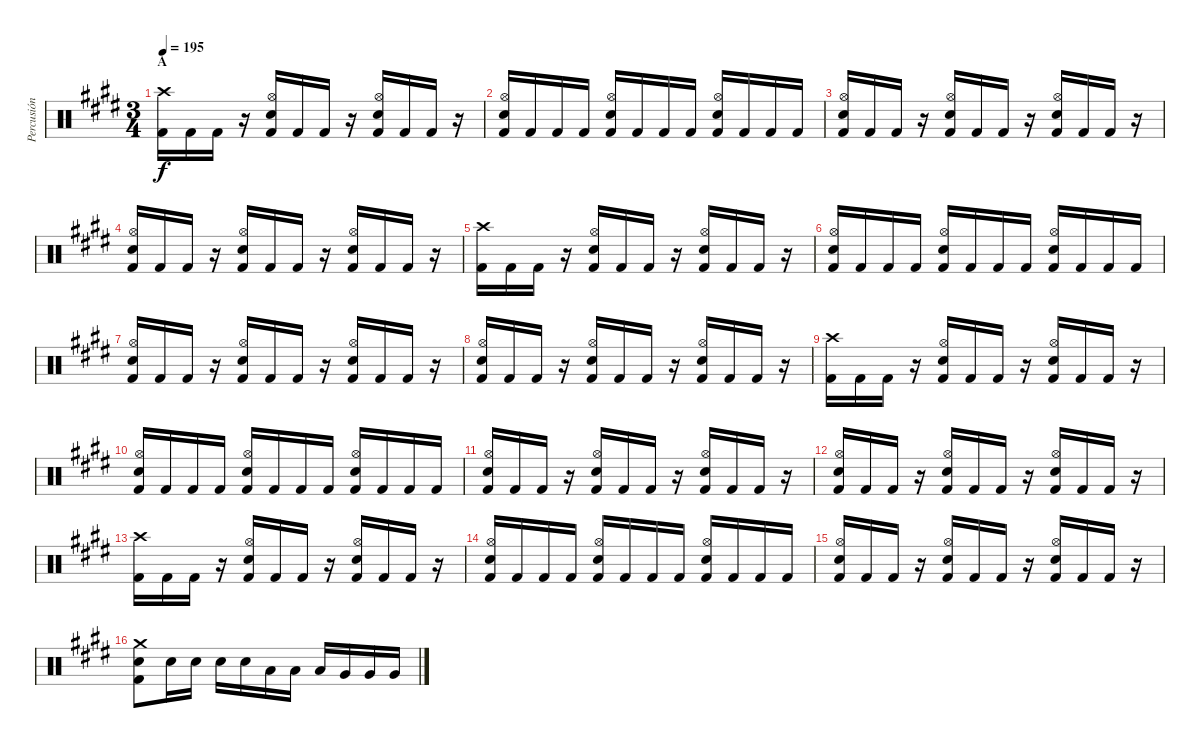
\track ("Percusión" "Percusión") {instrument percussion}
\staff {score}
\articulation defaults
\ts (3 4)
\section ("" "A")
\tempo 195
\clef neutral
\ks e
("Crash high (hit)" "Kick (hit) 2").16{dy f} "Kick (hit) 2".16 "Kick (hit) 2".16 r.16 ("Hi-Hat (open)" "Electric Snare (hit)" "Kick (hit) 2").16 "Kick (hit) 2".16 "Kick (hit) 2".16 r.16 ("Hi-Hat (open)" "Electric Snare (hit)" "Kick (hit) 2").16 "Kick (hit) 2".16 "Kick (hit) 2".16 r.16 |
("Hi-Hat (open)" "Electric Snare (hit)" "Kick (hit) 2").16 "Kick (hit) 2".16 "Kick (hit) 2".16 "Kick (hit) 2".16 ("Hi-Hat (open)" "Electric Snare (hit)" "Kick (hit) 2").16 "Kick (hit) 2".16 "Kick (hit) 2".16 "Kick (hit) 2".16 ("Hi-Hat (open)" "Electric Snare (hit)" "Kick (hit) 2").16 "Kick (hit) 2".16 "Kick (hit) 2".16 "Kick (hit) 2".16 |
("Hi-Hat (open)" "Electric Snare (hit)" "Kick (hit) 2").16 "Kick (hit) 2".16 "Kick (hit) 2".16 r.16 ("Hi-Hat (open)" "Electric Snare (hit)" "Kick (hit) 2").16 "Kick (hit) 2".16 "Kick (hit) 2".16 r.16 ("Hi-Hat (open)" "Electric Snare (hit)" "Kick (hit) 2").16 "Kick (hit) 2".16 "Kick (hit) 2".16 r.16 |
("Hi-Hat (open)" "Electric Snare (hit)" "Kick (hit) 2").16 "Kick (hit) 2".16 "Kick (hit) 2".16 r.16 ("Hi-Hat (open)" "Electric Snare (hit)" "Kick (hit) 2").16 "Kick (hit) 2".16 "Kick (hit) 2".16 r.16 ("Hi-Hat (open)" "Electric Snare (hit)" "Kick (hit) 2").16 "Kick (hit) 2".16 "Kick (hit) 2".16 r.16 |
("Crash high (hit)" "Kick (hit) 2").16 "Kick (hit) 2".16 "Kick (hit) 2".16 r.16 ("Hi-Hat (open)" "Electric Snare (hit)" "Kick (hit) 2").16 "Kick (hit) 2".16 "Kick (hit) 2".16 r.16 ("Hi-Hat (open)" "Electric Snare (hit)" "Kick (hit) 2").16 "Kick (hit) 2".16 "Kick (hit) 2".16 r.16 |
("Hi-Hat (open)" "Electric Snare (hit)" "Kick (hit) 2").16 "Kick (hit) 2".16 "Kick (hit) 2".16 "Kick (hit) 2".16 ("Hi-Hat (open)" "Electric Snare (hit)" "Kick (hit) 2").16 "Kick (hit) 2".16 "Kick (hit) 2".16 "Kick (hit) 2".16 ("Hi-Hat (open)" "Electric Snare (hit)" "Kick (hit) 2").16 "Kick (hit) 2".16 "Kick (hit) 2".16 "Kick (hit) 2".16 |
("Hi-Hat (open)" "Electric Snare (hit)" "Kick (hit) 2").16 "Kick (hit) 2".16 "Kick (hit) 2".16 r.16 ("Hi-Hat (open)" "Electric Snare (hit)" "Kick (hit) 2").16 "Kick (hit) 2".16 "Kick (hit) 2".16 r.16 ("Hi-Hat (open)" "Electric Snare (hit)" "Kick (hit) 2").16 "Kick (hit) 2".16 "Kick (hit) 2".16 r.16 |
("Hi-Hat (open)" "Electric Snare (hit)" "Kick (hit) 2").16 "Kick (hit) 2".16 "Kick (hit) 2".16 r.16 ("Hi-Hat (open)" "Electric Snare (hit)" "Kick (hit) 2").16 "Kick (hit) 2".16 "Kick (hit) 2".16 r.16 ("Hi-Hat (open)" "Electric Snare (hit)" "Kick (hit) 2").16 "Kick (hit) 2".16 "Kick (hit) 2".16 r.16 |
("Crash high (hit)" "Kick (hit) 2").16 "Kick (hit) 2".16 "Kick (hit) 2".16 r.16 ("Hi-Hat (open)" "Electric Snare (hit)" "Kick (hit) 2").16 "Kick (hit) 2".16 "Kick (hit) 2".16 r.16 ("Hi-Hat (open)" "Electric Snare (hit)" "Kick (hit) 2").16 "Kick (hit) 2".16 "Kick (hit) 2".16 r.16 |
("Hi-Hat (open)" "Electric Snare (hit)" "Kick (hit) 2").16 "Kick (hit) 2".16 "Kick (hit) 2".16 "Kick (hit) 2".16 ("Hi-Hat (open)" "Electric Snare (hit)" "Kick (hit) 2").16 "Kick (hit) 2".16 "Kick (hit) 2".16 "Kick (hit) 2".16 ("Hi-Hat (open)" "Electric Snare (hit)" "Kick (hit) 2").16 "Kick (hit) 2".16 "Kick (hit) 2".16 "Kick (hit) 2".16 |
("Hi-Hat (open)" "Electric Snare (hit)" "Kick (hit) 2").16 "Kick (hit) 2".16 "Kick (hit) 2".16 r.16 ("Hi-Hat (open)" "Electric Snare (hit)" "Kick (hit) 2").16 "Kick (hit) 2".16 "Kick (hit) 2".16 r.16 ("Hi-Hat (open)" "Electric Snare (hit)" "Kick (hit) 2").16 "Kick (hit) 2".16 "Kick (hit) 2".16 r.16 |
("Hi-Hat (open)" "Electric Snare (hit)" "Kick (hit) 2").16 "Kick (hit) 2".16 "Kick (hit) 2".16 r.16 ("Hi-Hat (open)" "Electric Snare (hit)" "Kick (hit) 2").16 "Kick (hit) 2".16 "Kick (hit) 2".16 r.16 ("Hi-Hat (open)" "Electric Snare (hit)" "Kick (hit) 2").16 "Kick (hit) 2".16 "Kick (hit) 2".16 r.16 |
("Crash high (hit)" "Kick (hit) 2").16 "Kick (hit) 2".16 "Kick (hit) 2".16 r.16 ("Hi-Hat (open)" "Electric Snare (hit)" "Kick (hit) 2").16 "Kick (hit) 2".16 "Kick (hit) 2".16 r.16 ("Hi-Hat (open)" "Electric Snare (hit)" "Kick (hit) 2").16 "Kick (hit) 2".16 "Kick (hit) 2".16 r.16 |
("Hi-Hat (open)" "Electric Snare (hit)" "Kick (hit) 2").16 "Kick (hit) 2".16 "Kick (hit) 2".16 "Kick (hit) 2".16 ("Hi-Hat (open)" "Electric Snare (hit)" "Kick (hit) 2").16 "Kick (hit) 2".16 "Kick (hit) 2".16 "Kick (hit) 2".16 ("Hi-Hat (open)" "Electric Snare (hit)" "Kick (hit) 2").16 "Kick (hit) 2".16 "Kick (hit) 2".16 "Kick (hit) 2".16 |
("Hi-Hat (open)" "Electric Snare (hit)" "Kick (hit) 2").16 "Kick (hit) 2".16 "Kick (hit) 2".16 r.16 ("Hi-Hat (open)" "Electric Snare (hit)" "Kick (hit) 2").16 "Kick (hit) 2".16 "Kick (hit) 2".16 r.16 ("Hi-Hat (open)" "Electric Snare (hit)" "Kick (hit) 2").16 "Kick (hit) 2".16 "Kick (hit) 2".16 r.16 |
("Crash medium (hit)" "Electric Snare (hit)" "Kick (hit) 2").8 "Electric Snare (hit)".16 "Electric Snare (hit)".16 "Electric Snare (hit)".16 "Electric Snare (hit)".16 "Low Tom (hit)".16 "Low Tom (hit)".16 "Low Tom (hit)".16 "Very Low Tom (hit)".16 "Very Low Tom (hit)".16 "Very Low Tom (hit)".16
